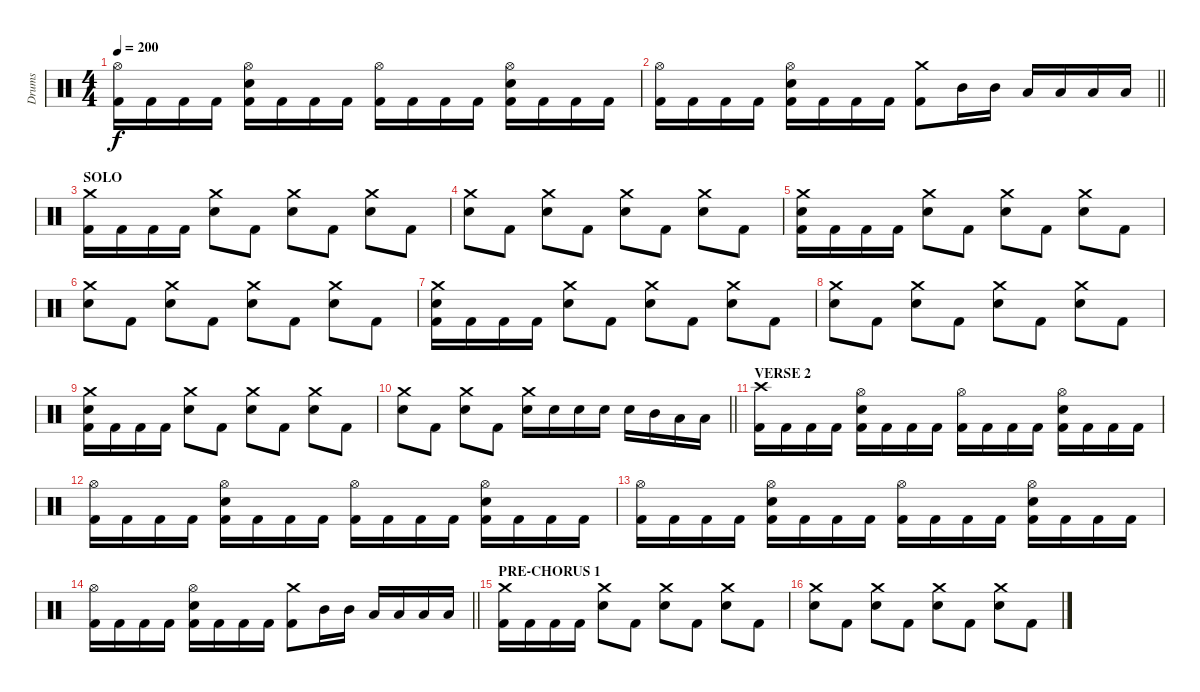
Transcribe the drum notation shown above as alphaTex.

\track ("Drums" "Drums") {instrument percussion}
\staff {score}
\articulation defaults
\ts (4 4)
\tempo 200
\clef neutral
\ks c
("Hi-Hat (open)" "Kick (hit) 2").16{dy f} "Kick (hit) 2".16 "Kick (hit) 2".16 "Kick (hit) 2".16 ("Hi-Hat (open)" "Electric Snare (hit)" "Kick (hit) 2").16 "Kick (hit) 2".16 "Kick (hit) 2".16 "Kick (hit) 2".16 ("Hi-Hat (open)" "Kick (hit) 2").16 "Kick (hit) 2".16 "Kick (hit) 2".16 "Kick (hit) 2".16 ("Hi-Hat (open)" "Electric Snare (hit)" "Kick (hit) 2").16 "Kick (hit) 2".16 "Kick (hit) 2".16 "Kick (hit) 2".16 |
\barLineRight lightlight
("Hi-Hat (open)" "Kick (hit) 2").16 "Kick (hit) 2".16 "Kick (hit) 2".16 "Kick (hit) 2".16 ("Hi-Hat (open)" "Electric Snare (hit)" "Kick (hit) 2").16 "Kick (hit) 2".16 "Kick (hit) 2".16 "Kick (hit) 2".16 ("Crash medium (hit)" "Kick (hit) 2").8 "Mid Tom (hit)".16 "Mid Tom (hit)".16 "Low Tom (hit)".16 "Low Tom (hit)".16 "Low Floor Tom (hit)".16 "Low Floor Tom (hit)".16 |
\section ("" "SOLO")
("Crash medium (hit)" "Kick (hit) 2").16 "Kick (hit) 2".16 "Kick (hit) 2".16 "Kick (hit) 2".16 ("Crash medium (hit)" "Electric Snare (hit)").8 "Kick (hit) 2".8 ("Crash medium (hit)" "Electric Snare (hit)").8 "Kick (hit) 2".8 ("Crash medium (hit)" "Electric Snare (hit)").8 "Kick (hit) 2".8 |
("Crash medium (hit)" "Electric Snare (hit)").8 "Kick (hit) 2".8 ("Crash medium (hit)" "Electric Snare (hit)").8 "Kick (hit) 2".8 ("Crash medium (hit)" "Electric Snare (hit)").8 "Kick (hit) 2".8 ("Crash medium (hit)" "Electric Snare (hit)").8 "Kick (hit) 2".8 |
("Crash medium (hit)" "Electric Snare (hit)" "Kick (hit) 2").16 "Kick (hit) 2".16 "Kick (hit) 2".16 "Kick (hit) 2".16 ("Crash medium (hit)" "Electric Snare (hit)").8 "Kick (hit) 2".8 ("Crash medium (hit)" "Electric Snare (hit)").8 "Kick (hit) 2".8 ("Crash medium (hit)" "Electric Snare (hit)").8 "Kick (hit) 2".8 |
("Crash medium (hit)" "Electric Snare (hit)").8 "Kick (hit) 2".8 ("Crash medium (hit)" "Electric Snare (hit)").8 "Kick (hit) 2".8 ("Crash medium (hit)" "Electric Snare (hit)").8 "Kick (hit) 2".8 ("Crash medium (hit)" "Electric Snare (hit)").8 "Kick (hit) 2".8 |
("Crash medium (hit)" "Electric Snare (hit)" "Kick (hit) 2").16 "Kick (hit) 2".16 "Kick (hit) 2".16 "Kick (hit) 2".16 ("Crash medium (hit)" "Electric Snare (hit)").8 "Kick (hit) 2".8 ("Crash medium (hit)" "Electric Snare (hit)").8 "Kick (hit) 2".8 ("Crash medium (hit)" "Electric Snare (hit)").8 "Kick (hit) 2".8 |
("Crash medium (hit)" "Electric Snare (hit)").8 "Kick (hit) 2".8 ("Crash medium (hit)" "Electric Snare (hit)").8 "Kick (hit) 2".8 ("Crash medium (hit)" "Electric Snare (hit)").8 "Kick (hit) 2".8 ("Crash medium (hit)" "Electric Snare (hit)").8 "Kick (hit) 2".8 |
("Crash medium (hit)" "Electric Snare (hit)" "Kick (hit) 2").16 "Kick (hit) 2".16 "Kick (hit) 2".16 "Kick (hit) 2".16 ("Crash medium (hit)" "Electric Snare (hit)").8 "Kick (hit) 2".8 ("Crash medium (hit)" "Electric Snare (hit)").8 "Kick (hit) 2".8 ("Crash medium (hit)" "Electric Snare (hit)").8 "Kick (hit) 2".8 |
\barLineRight lightlight
("Crash medium (hit)" "Electric Snare (hit)").8 "Kick (hit) 2".8 ("Crash medium (hit)" "Electric Snare (hit)").8 "Kick (hit) 2".8 ("Crash medium (hit)" "Electric Snare (hit)").16 "Electric Snare (hit)".16 "Electric Snare (hit)".16 "Electric Snare (hit)".16 "Electric Snare (hit)".16 "Mid Tom (hit)".16 "Low Tom (hit)".16 "Low Floor Tom (hit)".16 |
\section ("" "VERSE 2")
("Crash high (hit)" "Kick (hit) 2").16 "Kick (hit) 2".16 "Kick (hit) 2".16 "Kick (hit) 2".16 ("Hi-Hat (open)" "Electric Snare (hit)" "Kick (hit) 2").16 "Kick (hit) 2".16 "Kick (hit) 2".16 "Kick (hit) 2".16 ("Hi-Hat (open)" "Kick (hit) 2").16 "Kick (hit) 2".16 "Kick (hit) 2".16 "Kick (hit) 2".16 ("Hi-Hat (open)" "Electric Snare (hit)" "Kick (hit) 2").16 "Kick (hit) 2".16 "Kick (hit) 2".16 "Kick (hit) 2".16 |
("Hi-Hat (open)" "Kick (hit) 2").16 "Kick (hit) 2".16 "Kick (hit) 2".16 "Kick (hit) 2".16 ("Hi-Hat (open)" "Electric Snare (hit)" "Kick (hit) 2").16 "Kick (hit) 2".16 "Kick (hit) 2".16 "Kick (hit) 2".16 ("Hi-Hat (open)" "Kick (hit) 2").16 "Kick (hit) 2".16 "Kick (hit) 2".16 "Kick (hit) 2".16 ("Hi-Hat (open)" "Electric Snare (hit)" "Kick (hit) 2").16 "Kick (hit) 2".16 "Kick (hit) 2".16 "Kick (hit) 2".16 |
("Hi-Hat (open)" "Kick (hit) 2").16 "Kick (hit) 2".16 "Kick (hit) 2".16 "Kick (hit) 2".16 ("Hi-Hat (open)" "Electric Snare (hit)" "Kick (hit) 2").16 "Kick (hit) 2".16 "Kick (hit) 2".16 "Kick (hit) 2".16 ("Hi-Hat (open)" "Kick (hit) 2").16 "Kick (hit) 2".16 "Kick (hit) 2".16 "Kick (hit) 2".16 ("Hi-Hat (open)" "Electric Snare (hit)" "Kick (hit) 2").16 "Kick (hit) 2".16 "Kick (hit) 2".16 "Kick (hit) 2".16 |
\barLineRight lightlight
("Hi-Hat (open)" "Kick (hit) 2").16 "Kick (hit) 2".16 "Kick (hit) 2".16 "Kick (hit) 2".16 ("Hi-Hat (open)" "Electric Snare (hit)" "Kick (hit) 2").16 "Kick (hit) 2".16 "Kick (hit) 2".16 "Kick (hit) 2".16 ("Crash medium (hit)" "Kick (hit) 2").8 "Mid Tom (hit)".16 "Mid Tom (hit)".16 "Low Tom (hit)".16 "Low Tom (hit)".16 "Low Floor Tom (hit)".16 "Low Floor Tom (hit)".16 |
\section ("" "PRE-CHORUS 1")
("Crash medium (hit)" "Kick (hit) 2").16 "Kick (hit) 2".16 "Kick (hit) 2".16 "Kick (hit) 2".16 ("Crash medium (hit)" "Electric Snare (hit)").8 "Kick (hit) 2".8 ("Crash medium (hit)" "Electric Snare (hit)").8 "Kick (hit) 2".8 ("Crash medium (hit)" "Electric Snare (hit)").8 "Kick (hit) 2".8 |
("Crash medium (hit)" "Electric Snare (hit)").8 "Kick (hit) 2".8 ("Crash medium (hit)" "Electric Snare (hit)").8 "Kick (hit) 2".8 ("Crash medium (hit)" "Electric Snare (hit)").8 "Kick (hit) 2".8 ("Crash medium (hit)" "Electric Snare (hit)").8 "Kick (hit) 2".8
